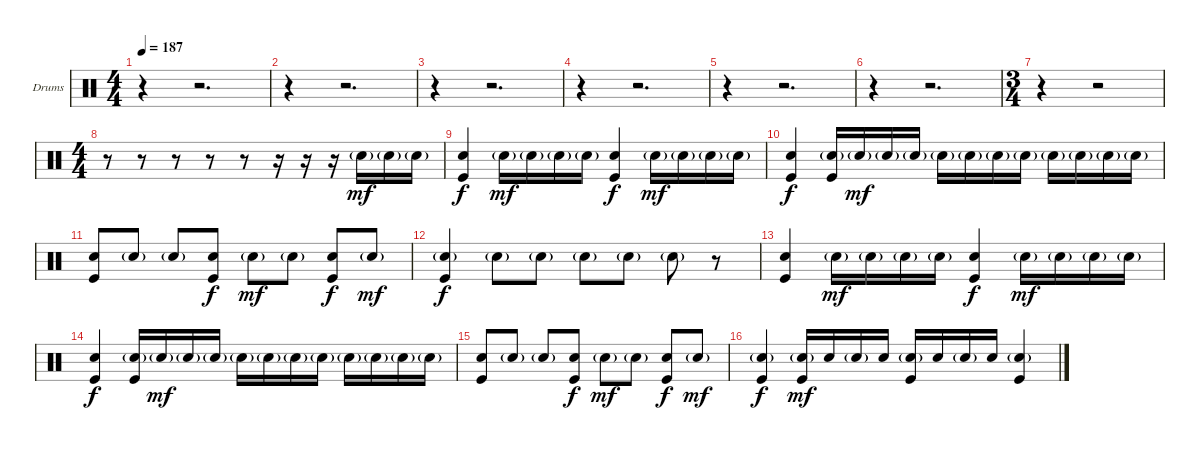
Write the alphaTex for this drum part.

\bracketExtendMode groupsimilarinstruments
\firstSystemTrackNameOrientation horizontal
\otherSystemsTrackNameOrientation horizontal
\track ("Drumkit" "Drums") {instrument percussion}
\staff {score}
\articulation defaults
\ts (4 4)
\beaming (8 2 2 2 2)
\tempo 187
\clef neutral
\ks c
r.4{dy mf} r.2{d} |
r.4 r.2{d} |
r.4 r.2{d} |
r.4 r.2{d} |
r.4 r.2{d} |
r.4 r.2{d} |
\ts (3 4)
\beaming (8 2 2 2)
r.4 r.2 |
\ts (4 4)
\beaming (8 2 2 2 2)
r.8 r.8 r.8 r.8 r.8 r.16 r.16 r.16 "Snare (hit) 2"{g}.16 "Snare (hit) 2"{g}.16 "Snare (hit) 2"{g}.16 |
("Snare (hit) 2" "Kick (hit)").4{dy f} "Snare (hit) 2"{g}.16{dy mf} "Snare (hit) 2"{g}.16 "Snare (hit) 2"{g}.16 "Snare (hit) 2"{g}.16 ("Snare (hit) 2" "Kick (hit)").4{dy f} "Snare (hit) 2"{g}.16{dy mf} "Snare (hit) 2"{g}.16 "Snare (hit) 2"{g}.16 "Snare (hit) 2"{g}.16 |
("Snare (hit) 2" "Kick (hit)").4{dy f} ("Snare (hit) 2"{g} "Kick (hit)").16 "Snare (hit) 2"{g}.16{dy mf} "Snare (hit) 2"{g}.16 "Snare (hit) 2"{g}.16 "Snare (hit) 2"{g}.16 "Snare (hit) 2"{g}.16 "Snare (hit) 2"{g}.16 "Snare (hit) 2"{g}.16 "Snare (hit) 2"{g}.16 "Snare (hit) 2"{g}.16 "Snare (hit) 2"{g}.16 "Snare (hit) 2"{g}.16 |
("Snare (hit) 2" "Kick (hit)").8 "Snare (hit) 2"{g}.8 "Snare (hit) 2"{g}.8 ("Snare (hit) 2" "Kick (hit)").8{dy f} "Snare (hit) 2"{g}.8{dy mf} "Snare (hit) 2"{g}.8 ("Snare (hit) 2" "Kick (hit)").8{dy f} "Snare (hit) 2"{g}.8{dy mf} |
("Snare (hit) 2"{g} "Kick (hit)").4{dy f} "Snare (hit) 2"{g}.8 "Snare (hit) 2"{g}.8 "Snare (hit) 2"{g}.8 "Snare (hit) 2"{g}.8 "Snare (hit) 2"{g}.8 r.8 |
("Snare (hit) 2" "Kick (hit)").4 "Snare (hit) 2"{g}.16{dy mf} "Snare (hit) 2"{g}.16 "Snare (hit) 2"{g}.16 "Snare (hit) 2"{g}.16 ("Snare (hit) 2" "Kick (hit)").4{dy f} "Snare (hit) 2"{g}.16{dy mf} "Snare (hit) 2"{g}.16 "Snare (hit) 2"{g}.16 "Snare (hit) 2"{g}.16 |
("Snare (hit) 2" "Kick (hit)").4{dy f} ("Snare (hit) 2"{g} "Kick (hit)").16 "Snare (hit) 2"{g}.16{dy mf} "Snare (hit) 2"{g}.16 "Snare (hit) 2"{g}.16 "Snare (hit) 2"{g}.16 "Snare (hit) 2"{g}.16 "Snare (hit) 2"{g}.16 "Snare (hit) 2"{g}.16 "Snare (hit) 2"{g}.16 "Snare (hit) 2"{g}.16 "Snare (hit) 2"{g}.16 "Snare (hit) 2"{g}.16 |
("Snare (hit) 2" "Kick (hit)").8 "Snare (hit) 2"{g}.8 "Snare (hit) 2"{g}.8 ("Snare (hit) 2" "Kick (hit)").8{dy f} "Snare (hit) 2"{g}.8{dy mf} "Snare (hit) 2"{g}.8 ("Snare (hit) 2" "Kick (hit)").8{dy f} "Snare (hit) 2"{g}.8{dy mf} |
("Snare (hit) 2"{g} "Kick (hit)").4{dy f} ("Snare (hit) 2"{g} "Kick (hit)").16{dy mf} "Snare (hit) 2".16 "Snare (hit) 2"{g}.16 "Snare (hit) 2".16 ("Snare (hit) 2"{g} "Kick (hit)").16 "Snare (hit) 2".16 "Snare (hit) 2"{g}.16 "Snare (hit) 2".16 ("Snare (hit) 2"{g} "Kick (hit)").4
